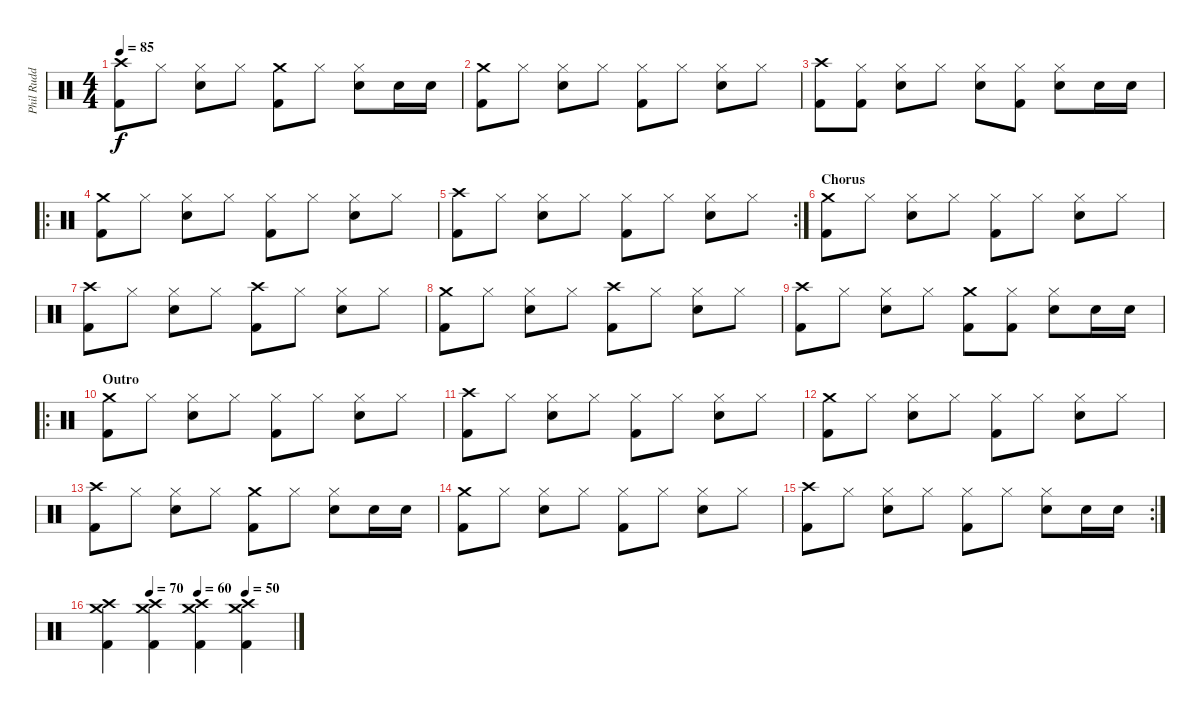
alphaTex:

\track ("Phil Rudd" "Phil Rudd") {instrument percussion}
\staff {score}
\articulation defaults
\ts (4 4)
\tempo 85
\clef neutral
\ks c
("Crash high (hit)" "Kick (hit) 2").8{dy f} "Hi-Hat (closed)".8 ("Hi-Hat (closed)" "Snare (hit) 2").8 "Hi-Hat (closed)".8 ("Crash medium (hit)" "Kick (hit) 2").8 "Hi-Hat (closed)".8 ("Hi-Hat (closed)" "Snare (hit) 2").8 "Snare (hit) 2".16 "Snare (hit) 2".16 |
("Crash medium (hit)" "Kick (hit) 2").8 "Hi-Hat (closed)".8 ("Hi-Hat (closed)" "Snare (hit) 2").8 "Hi-Hat (closed)".8 ("Hi-Hat (closed)" "Kick (hit) 2").8 "Hi-Hat (closed)".8 ("Hi-Hat (closed)" "Snare (hit) 2").8 "Hi-Hat (closed)".8 |
("Crash high (hit)" "Kick (hit) 2").8 ("Hi-Hat (closed)" "Kick (hit) 2").8 ("Hi-Hat (closed)" "Snare (hit) 2").8 "Hi-Hat (closed)".8 ("Hi-Hat (closed)" "Snare (hit) 2").8 ("Hi-Hat (closed)" "Kick (hit) 2").8 ("Hi-Hat (closed)" "Snare (hit) 2").8 "Snare (hit) 2".16 "Snare (hit) 2".16 |
\ro
("Crash medium (hit)" "Kick (hit) 2").8 "Hi-Hat (closed)".8 ("Hi-Hat (closed)" "Snare (hit) 2").8 "Hi-Hat (closed)".8 ("Hi-Hat (closed)" "Kick (hit) 2").8 "Hi-Hat (closed)".8 ("Hi-Hat (closed)" "Snare (hit) 2").8 "Hi-Hat (closed)".8 |
\rc 2
("Crash high (hit)" "Kick (hit) 2").8 "Hi-Hat (closed)".8 ("Hi-Hat (closed)" "Snare (hit) 2").8 "Hi-Hat (closed)".8 ("Hi-Hat (closed)" "Kick (hit) 2").8 "Hi-Hat (closed)".8 ("Hi-Hat (closed)" "Snare (hit) 2").8 "Hi-Hat (closed)".8 |
\section ("" "Chorus")
("Crash medium (hit)" "Kick (hit) 2").8 "Hi-Hat (closed)".8 ("Hi-Hat (closed)" "Snare (hit) 2").8 "Hi-Hat (closed)".8 ("Hi-Hat (closed)" "Kick (hit) 2").8 "Hi-Hat (closed)".8 ("Hi-Hat (closed)" "Snare (hit) 2").8 "Hi-Hat (closed)".8 |
("Crash high (hit)" "Kick (hit) 2").8 "Hi-Hat (closed)".8 ("Hi-Hat (closed)" "Snare (hit) 2").8 "Hi-Hat (closed)".8 ("Crash high (hit)" "Kick (hit) 2").8 "Hi-Hat (closed)".8 ("Hi-Hat (closed)" "Snare (hit) 2").8 "Hi-Hat (closed)".8 |
("Crash medium (hit)" "Kick (hit) 2").8 "Hi-Hat (closed)".8 ("Hi-Hat (closed)" "Snare (hit) 2").8 "Hi-Hat (closed)".8 ("Crash high (hit)" "Kick (hit) 2").8 "Hi-Hat (closed)".8 ("Hi-Hat (closed)" "Snare (hit) 2").8 "Hi-Hat (closed)".8 |
("Crash high (hit)" "Kick (hit) 2").8 "Hi-Hat (closed)".8 ("Hi-Hat (closed)" "Snare (hit) 2").8 "Hi-Hat (closed)".8 ("Crash medium (hit)" "Kick (hit) 2").8 ("Hi-Hat (closed)" "Kick (hit) 2").8 ("Hi-Hat (closed)" "Snare (hit) 2").8 "Snare (hit) 2".16 "Snare (hit) 2".16 |
\ro
\section ("" "Outro")
("Crash medium (hit)" "Kick (hit) 2").8 "Hi-Hat (closed)".8 ("Hi-Hat (closed)" "Snare (hit) 2").8 "Hi-Hat (closed)".8 ("Hi-Hat (closed)" "Kick (hit) 2").8 "Hi-Hat (closed)".8 ("Hi-Hat (closed)" "Snare (hit) 2").8 "Hi-Hat (closed)".8 |
("Crash high (hit)" "Kick (hit) 2").8 "Hi-Hat (closed)".8 ("Hi-Hat (closed)" "Snare (hit) 2").8 "Hi-Hat (closed)".8 ("Hi-Hat (closed)" "Kick (hit) 2").8 "Hi-Hat (closed)".8 ("Hi-Hat (closed)" "Snare (hit) 2").8 "Hi-Hat (closed)".8 |
("Crash medium (hit)" "Kick (hit) 2").8 "Hi-Hat (closed)".8 ("Hi-Hat (closed)" "Snare (hit) 2").8 "Hi-Hat (closed)".8 ("Hi-Hat (closed)" "Kick (hit) 2").8 "Hi-Hat (closed)".8 ("Hi-Hat (closed)" "Snare (hit) 2").8 "Hi-Hat (closed)".8 |
("Crash high (hit)" "Kick (hit) 2").8 "Hi-Hat (closed)".8 ("Hi-Hat (closed)" "Snare (hit) 2").8 "Hi-Hat (closed)".8 ("Crash medium (hit)" "Kick (hit) 2").8 "Hi-Hat (closed)".8 ("Hi-Hat (closed)" "Snare (hit) 2").8 "Snare (hit) 2".16 "Snare (hit) 2".16 |
("Crash medium (hit)" "Kick (hit) 2").8 "Hi-Hat (closed)".8 ("Hi-Hat (closed)" "Snare (hit) 2").8 "Hi-Hat (closed)".8 ("Hi-Hat (closed)" "Kick (hit) 2").8 "Hi-Hat (closed)".8 ("Hi-Hat (closed)" "Snare (hit) 2").8 "Hi-Hat (closed)".8 |
\rc 2
("Crash high (hit)" "Kick (hit) 2").8 "Hi-Hat (closed)".8 ("Hi-Hat (closed)" "Snare (hit) 2").8 "Hi-Hat (closed)".8 ("Hi-Hat (closed)" "Kick (hit) 2").8 "Hi-Hat (closed)".8 ("Hi-Hat (closed)" "Snare (hit) 2").8 "Snare (hit) 2".16 "Snare (hit) 2".16 |
\tempo (70 0.25)
\tempo (60 0.5)
\tempo (50 0.75)
("Crash high (hit)" "Crash medium (hit)" "Kick (hit) 2").4 ("Crash high (hit)" "Crash medium (hit)" "Kick (hit) 2").4 ("Crash high (hit)" "Crash medium (hit)" "Kick (hit) 2").4 ("Crash high (hit)" "Crash medium (hit)" "Kick (hit) 2").4
